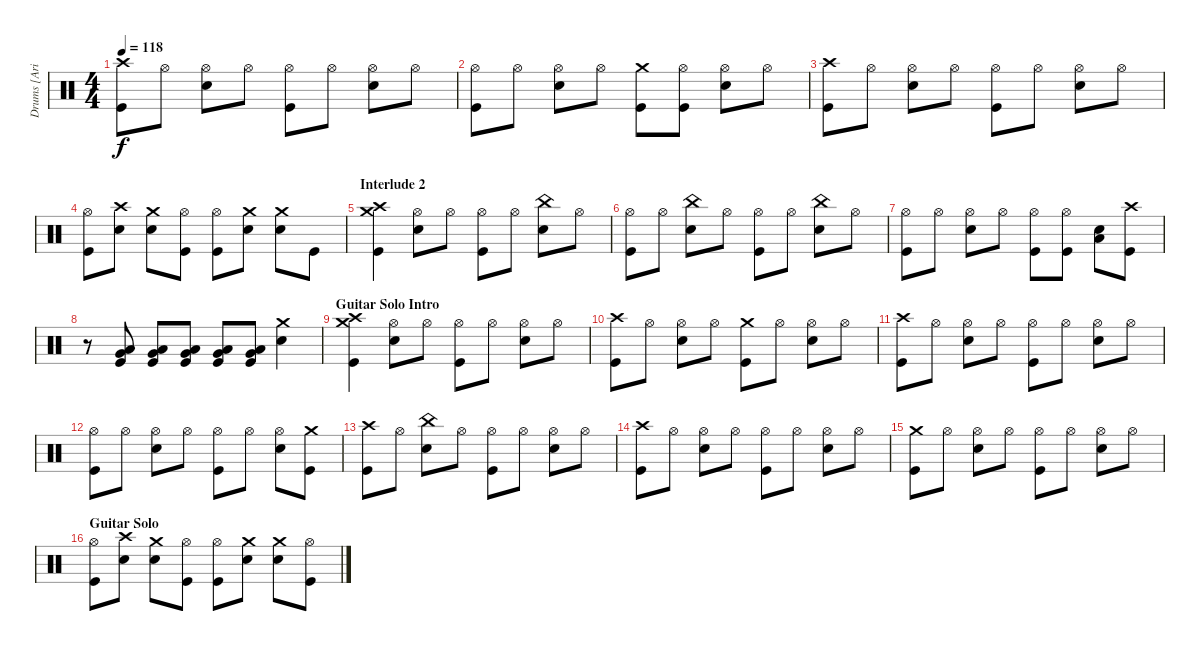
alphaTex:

\track ("Drums [Arin Ilejay]" "Drums [Ari") {instrument percussion}
\staff {score}
\articulation defaults
\ts (4 4)
\tempo 118
\clef neutral
\ks c
("Crash high (hit)" "Kick (hit)").8{dy f} "Hi-Hat (open)".8 ("Hi-Hat (open)" "Snare (hit) 2").8 "Hi-Hat (open)".8 ("Hi-Hat (open)" "Kick (hit)").8 "Hi-Hat (open)".8 ("Hi-Hat (open)" "Snare (hit) 2").8 "Hi-Hat (open)".8 |
("Hi-Hat (open)" "Kick (hit)").8 "Hi-Hat (open)".8 ("Hi-Hat (open)" "Snare (hit) 2").8 "Hi-Hat (open)".8 ("Crash medium (hit)" "Kick (hit)").8 ("Hi-Hat (open)" "Kick (hit)").8 ("Hi-Hat (open)" "Snare (hit) 2").8 "Hi-Hat (open)".8 |
("Crash high (hit)" "Kick (hit)").8 "Hi-Hat (open)".8 ("Hi-Hat (open)" "Snare (hit) 2").8 "Hi-Hat (open)".8 ("Hi-Hat (open)" "Kick (hit)").8 "Hi-Hat (open)".8 ("Hi-Hat (open)" "Snare (hit) 2").8 "Hi-Hat (open)".8 |
("Hi-Hat (open)" "Kick (hit)").8 ("Crash high (hit)" "Snare (hit) 2").8 ("Crash medium (hit)" "Snare (hit) 2").8 ("Hi-Hat (open)" "Kick (hit)").8 ("Hi-Hat (open)" "Kick (hit)").8 ("Crash medium (hit)" "Snare (hit) 2").8 ("Crash medium (hit)" "Snare (hit) 2").8 "Kick (hit)".8 |
\section ("" "Interlude 2")
("Crash high (hit)" "Crash medium (hit)" "Kick (hit)").4 ("Hi-Hat (open)" "Snare (hit) 2").8 "Hi-Hat (open)".8 ("Hi-Hat (open)" "Kick (hit)").8 "Hi-Hat (open)".8 ("China (hit)" "Snare (hit) 2").8 "Hi-Hat (open)".8 |
("Hi-Hat (open)" "Kick (hit)").8 "Hi-Hat (open)".8 ("China (hit)" "Snare (hit) 2").8 "Hi-Hat (open)".8 ("Hi-Hat (open)" "Kick (hit)").8 "Hi-Hat (open)".8 ("China (hit)" "Snare (hit) 2").8 "Hi-Hat (open)".8 |
("Hi-Hat (open)" "Kick (hit)").8 "Hi-Hat (open)".8 ("Hi-Hat (open)" "Snare (hit) 2").8 "Hi-Hat (open)".8 ("Hi-Hat (open)" "Kick (hit)").8 ("Hi-Hat (open)" "Kick (hit)").8 ("Low Floor Tom (hit)" "Snare (hit) 2").8 ("Crash high (hit)" "Kick (hit)").8 |
r.8 ("Low Tom (hit)" "Very Low Tom (hit)" "Kick (hit)").8 ("Low Tom (hit)" "Very Low Tom (hit)" "Kick (hit)").8 ("Low Tom (hit)" "Very Low Tom (hit)" "Kick (hit)").8 ("Low Tom (hit)" "Very Low Tom (hit)" "Kick (hit)").8 ("Low Tom (hit)" "Very Low Tom (hit)" "Kick (hit)").8 ("Crash medium (hit)" "Snare (hit) 2").4 |
\section ("" "Guitar Solo Intro")
("Crash high (hit)" "Crash medium (hit)" "Kick (hit)").4 ("Hi-Hat (open)" "Snare (hit) 2").8 "Hi-Hat (open)".8 ("Hi-Hat (open)" "Kick (hit)").8 "Hi-Hat (open)".8 ("Hi-Hat (open)" "Snare (hit) 2").8 "Hi-Hat (open)".8 |
("Crash high (hit)" "Kick (hit)").8 "Hi-Hat (open)".8 ("Hi-Hat (open)" "Snare (hit) 2").8 "Hi-Hat (open)".8 ("Crash medium (hit)" "Kick (hit)").8 "Hi-Hat (open)".8 ("Hi-Hat (open)" "Snare (hit) 2").8 "Hi-Hat (open)".8 |
("Crash high (hit)" "Kick (hit)").8 "Hi-Hat (open)".8 ("Hi-Hat (open)" "Snare (hit) 2").8 "Hi-Hat (open)".8 ("Hi-Hat (open)" "Kick (hit)").8 "Hi-Hat (open)".8 ("Hi-Hat (open)" "Snare (hit) 2").8 "Hi-Hat (open)".8 |
("Hi-Hat (open)" "Kick (hit)").8 "Hi-Hat (open)".8 ("Hi-Hat (open)" "Snare (hit) 2").8 "Hi-Hat (open)".8 ("Hi-Hat (open)" "Kick (hit)").8 "Hi-Hat (open)".8 ("Hi-Hat (open)" "Snare (hit) 2").8 ("Crash medium (hit)" "Kick (hit)").8 |
("Crash high (hit)" "Kick (hit)").8 "Hi-Hat (open)".8 ("China (hit)" "Snare (hit) 2").8 "Hi-Hat (open)".8 ("Hi-Hat (open)" "Kick (hit)").8 "Hi-Hat (open)".8 ("Hi-Hat (open)" "Snare (hit) 2").8 "Hi-Hat (open)".8 |
("Crash high (hit)" "Kick (hit)").8 "Hi-Hat (open)".8 ("Hi-Hat (open)" "Snare (hit) 2").8 "Hi-Hat (open)".8 ("Hi-Hat (open)" "Kick (hit)").8 "Hi-Hat (open)".8 ("Hi-Hat (open)" "Snare (hit) 2").8 "Hi-Hat (open)".8 |
("Crash medium (hit)" "Kick (hit)").8 "Hi-Hat (open)".8 ("Hi-Hat (open)" "Snare (hit) 2").8 "Hi-Hat (open)".8 ("Hi-Hat (open)" "Kick (hit)").8 "Hi-Hat (open)".8 ("Hi-Hat (open)" "Snare (hit) 2").8 "Hi-Hat (open)".8 |
\section ("" "Guitar Solo")
("Hi-Hat (open)" "Kick (hit)").8 ("Crash high (hit)" "Snare (hit) 2").8 ("Crash medium (hit)" "Snare (hit) 2").8 ("Hi-Hat (open)" "Kick (hit)").8 ("Hi-Hat (open)" "Kick (hit)").8 ("Crash medium (hit)" "Snare (hit) 2").8 ("Crash medium (hit)" "Snare (hit) 2").8 ("Hi-Hat (open)" "Kick (hit)").8
